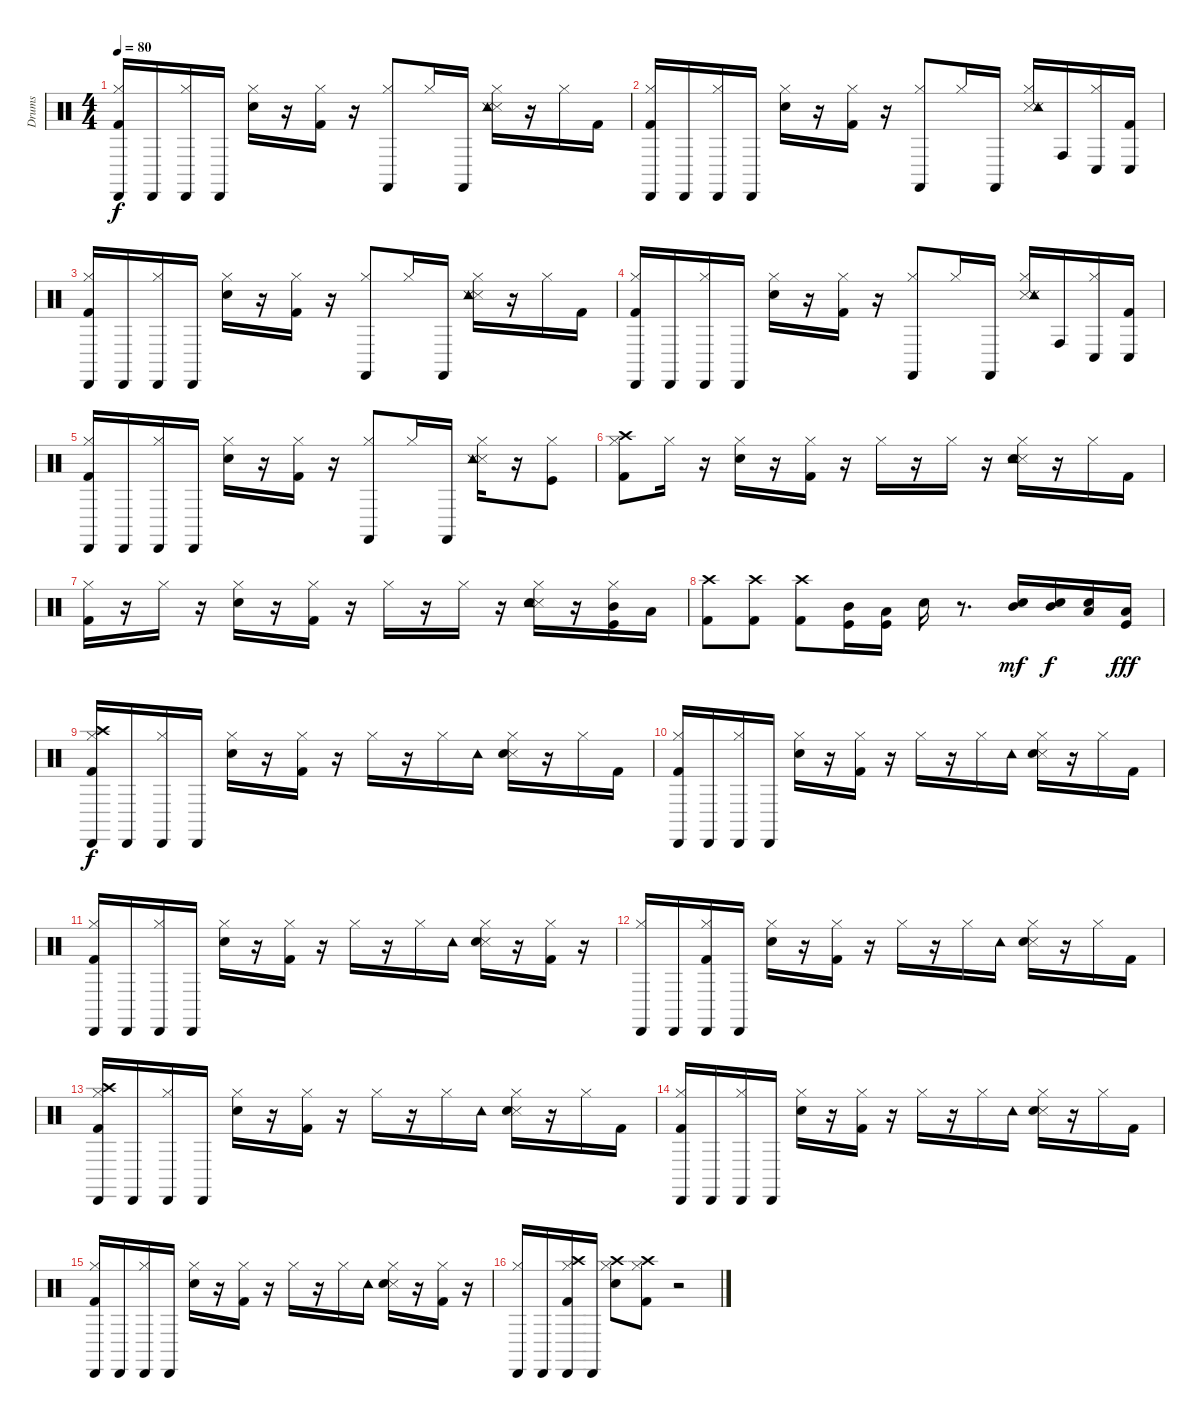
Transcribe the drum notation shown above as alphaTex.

\track ("Drums" "Drums") {instrument percussion}
\staff {score}
\articulation defaults
\ts (4 4)
\tempo 80
\clef neutral
\ks c
("Hi-Hat (closed)" "Kick (hit) 2" "Cabasa (hit)").16{dy f} "Cabasa (hit)".16 ("Cabasa (hit)" "Hi-Hat (closed)").16 "Cabasa (hit)".16 ("Electric Snare (hit)" "Hi-Hat (closed)").16 r.16 ("Hi-Hat (closed)" "Kick (hit) 2").16 r.16 ("Hi-Hat (closed)" "Castanets (hit)").8 "Hi-Hat (closed)".16 "Castanets (hit)".16 ("Metronome (hit)" "Snare (side stick) 3" "Tambourine (hit)" "Hi-Hat (closed)").16 r.16 "Hi-Hat (closed)".16 "Kick (hit) 2".16 |
("Hi-Hat (closed)" "Kick (hit) 2" "Cabasa (hit)").16 "Cabasa (hit)".16 ("Cabasa (hit)" "Hi-Hat (closed)").16 "Cabasa (hit)".16 ("Hi-Hat (closed)" "Electric Snare (hit)").16 r.16 ("Kick (hit) 2" "Hi-Hat (closed)").16 r.16 ("Castanets (hit)" "Hi-Hat (closed)").8 "Hi-Hat (closed)".16 "Castanets (hit)".16 ("Metronome (hit)" "Snare (side stick) 3" "Hi-Hat (closed)" "Tambourine (hit)").16 "Conga high (hit)".16 ("Hi-Hat (closed)" "Conga low (hit)").16 ("Kick (hit) 2" "Conga low (hit)").16 |
("Hi-Hat (closed)" "Kick (hit) 2" "Cabasa (hit)").16 "Cabasa (hit)".16 ("Cabasa (hit)" "Hi-Hat (closed)").16 "Cabasa (hit)".16 ("Electric Snare (hit)" "Hi-Hat (closed)").16 r.16 ("Hi-Hat (closed)" "Kick (hit) 2").16 r.16 ("Hi-Hat (closed)" "Castanets (hit)").8 "Hi-Hat (closed)".16 "Castanets (hit)".16 ("Metronome (hit)" "Snare (side stick) 3" "Tambourine (hit)" "Hi-Hat (closed)").16 r.16 "Hi-Hat (closed)".16 "Kick (hit) 2".16 |
("Hi-Hat (closed)" "Kick (hit) 2" "Cabasa (hit)").16 "Cabasa (hit)".16 ("Cabasa (hit)" "Hi-Hat (closed)").16 "Cabasa (hit)".16 ("Hi-Hat (closed)" "Electric Snare (hit)").16 r.16 ("Kick (hit) 2" "Hi-Hat (closed)").16 r.16 ("Castanets (hit)" "Hi-Hat (closed)").8 "Hi-Hat (closed)".16 "Castanets (hit)".16 ("Metronome (hit)" "Snare (side stick) 3" "Hi-Hat (closed)" "Tambourine (hit)").16 "Conga high (hit)".16 ("Hi-Hat (closed)" "Conga low (hit)").16 ("Kick (hit) 2" "Conga low (hit)").16 |
("Hi-Hat (closed)" "Kick (hit) 2" "Cabasa (hit)").16 "Cabasa (hit)".16 ("Cabasa (hit)" "Hi-Hat (closed)").16 "Cabasa (hit)".16 ("Electric Snare (hit)" "Hi-Hat (closed)").16 r.16 ("Hi-Hat (closed)" "Kick (hit) 2").16 r.16 ("Hi-Hat (closed)" "Castanets (hit)").8 "Hi-Hat (closed)".16 "Castanets (hit)".16 ("Metronome (hit)" "Snare (side stick) 3" "Tambourine (hit)" "Hi-Hat (closed)").16 r.16 ("Kick (hit)" "Hi-Hat (closed)").8 |
("Crash high (hit)" "Hi-Hat (closed)" "Kick (hit) 2").8 "Hi-Hat (closed)".16 r.16 ("Hi-Hat (closed)" "Electric Snare (hit)").16 r.16 ("Kick (hit) 2" "Hi-Hat (closed)").16 r.16 "Hi-Hat (closed)".16 r.16 "Hi-Hat (closed)".16 r.16 ("Metronome (hit)" "Snare (hit) 2" "Hi-Hat (closed)" "Tambourine (hit)").16 r.16 "Hi-Hat (closed)".16 "Kick (hit) 2".16 |
("Hi-Hat (closed)" "Kick (hit) 2").16 r.16 "Hi-Hat (closed)".16 r.16 ("Electric Snare (hit)" "Hi-Hat (closed)").16 r.16 ("Hi-Hat (closed)" "Kick (hit) 2").16 r.16 "Hi-Hat (closed)".16 r.16 "Hi-Hat (closed)".16 r.16 ("Metronome (hit)" "Snare (hit) 2" "Tambourine (hit)" "Hi-Hat (closed)").16 r.16 ("Mid Tom (hit)" "Kick (hit)" "Hi-Hat (closed)").16 "Low Tom (hit)".16 |
("Crash high (hit)" "Kick (hit) 2").8 ("Crash high (hit)" "Kick (hit) 2").8 ("Crash high (hit)" "Kick (hit) 2").8 ("Mid Tom (hit)" "Kick (hit)").16 ("Low Tom (hit)" "Kick (hit)").16 "Snare (hit) 2".16 r.8{d} ("Mid Tom (hit)" "Snare (hit) 2").16{dy mf} ("Mid Tom (hit)" "Snare (hit) 2").16{dy f} ("Low Tom (hit)" "Snare (hit) 2").16 ("Low Tom (hit)" "Kick (hit)").16{dy fff} |
("Crash high (hit)" "Hi-Hat (closed)" "Kick (hit) 2" "Cabasa (hit)").16{dy f} "Cabasa (hit)".16 ("Cabasa (hit)" "Hi-Hat (closed)").16 "Cabasa (hit)".16 ("Hi-Hat (closed)" "Electric Snare (hit)").16 r.16 ("Kick (hit) 2" "Hi-Hat (closed)").16 r.16 "Hi-Hat (closed)".16 r.16 "Hi-Hat (closed)".16 "Tambourine (hit)".16 ("Metronome (hit)" "Snare (hit) 2" "Hi-Hat (closed)").16 r.16 "Hi-Hat (closed)".16 "Kick (hit) 2".16 |
("Hi-Hat (closed)" "Kick (hit) 2" "Cabasa (hit)").16 "Cabasa (hit)".16 ("Cabasa (hit)" "Hi-Hat (closed)").16 "Cabasa (hit)".16 ("Hi-Hat (closed)" "Electric Snare (hit)").16 r.16 ("Kick (hit) 2" "Hi-Hat (closed)").16 r.16 "Hi-Hat (closed)".16 r.16 "Hi-Hat (closed)".16 "Tambourine (hit)".16 ("Metronome (hit)" "Snare (hit) 2" "Hi-Hat (closed)").16 r.16 "Hi-Hat (closed)".16 "Kick (hit) 2".16 |
("Hi-Hat (closed)" "Kick (hit) 2" "Cabasa (hit)").16 "Cabasa (hit)".16 ("Cabasa (hit)" "Hi-Hat (closed)").16 "Cabasa (hit)".16 ("Hi-Hat (closed)" "Electric Snare (hit)").16 r.16 ("Kick (hit) 2" "Hi-Hat (closed)").16 r.16 "Hi-Hat (closed)".16 r.16 "Hi-Hat (closed)".16 "Tambourine (hit)".16 ("Metronome (hit)" "Snare (hit) 2" "Hi-Hat (closed)").16 r.16 ("Kick (hit) 2" "Hi-Hat (closed)").16 r.16 |
("Hi-Hat (closed)" "Cabasa (hit)").16 "Cabasa (hit)".16 ("Kick (hit) 2" "Cabasa (hit)" "Hi-Hat (closed)").16 "Cabasa (hit)".16 ("Hi-Hat (closed)" "Electric Snare (hit)").16 r.16 ("Kick (hit) 2" "Hi-Hat (closed)").16 r.16 "Hi-Hat (closed)".16 r.16 "Hi-Hat (closed)".16 "Tambourine (hit)".16 ("Metronome (hit)" "Snare (hit) 2" "Hi-Hat (closed)").16 r.16 "Hi-Hat (closed)".16 "Kick (hit) 2".16 |
("Crash high (hit)" "Hi-Hat (closed)" "Kick (hit) 2" "Cabasa (hit)").16 "Cabasa (hit)".16 ("Cabasa (hit)" "Hi-Hat (closed)").16 "Cabasa (hit)".16 ("Hi-Hat (closed)" "Electric Snare (hit)").16 r.16 ("Kick (hit) 2" "Hi-Hat (closed)").16 r.16 "Hi-Hat (closed)".16 r.16 "Hi-Hat (closed)".16 "Tambourine (hit)".16 ("Metronome (hit)" "Snare (hit) 2" "Hi-Hat (closed)").16 r.16 "Hi-Hat (closed)".16 "Kick (hit) 2".16 |
("Hi-Hat (closed)" "Kick (hit) 2" "Cabasa (hit)").16 "Cabasa (hit)".16 ("Cabasa (hit)" "Hi-Hat (closed)").16 "Cabasa (hit)".16 ("Hi-Hat (closed)" "Electric Snare (hit)").16 r.16 ("Kick (hit) 2" "Hi-Hat (closed)").16 r.16 "Hi-Hat (closed)".16 r.16 "Hi-Hat (closed)".16 "Tambourine (hit)".16 ("Metronome (hit)" "Snare (hit) 2" "Hi-Hat (closed)").16 r.16 "Hi-Hat (closed)".16 "Kick (hit) 2".16 |
("Hi-Hat (closed)" "Kick (hit) 2" "Cabasa (hit)").16 "Cabasa (hit)".16 ("Cabasa (hit)" "Hi-Hat (closed)").16 "Cabasa (hit)".16 ("Hi-Hat (closed)" "Electric Snare (hit)").16 r.16 ("Kick (hit) 2" "Hi-Hat (closed)").16 r.16 "Hi-Hat (closed)".16 r.16 "Hi-Hat (closed)".16 "Tambourine (hit)".16 ("Metronome (hit)" "Snare (hit) 2" "Hi-Hat (closed)").16 r.16 ("Kick (hit) 2" "Hi-Hat (closed)").16 r.16 |
("Hi-Hat (closed)" "Cabasa (hit)").16 "Cabasa (hit)".16 ("Crash high (hit)" "Kick (hit) 2" "Cabasa (hit)" "Hi-Hat (closed)").16 "Cabasa (hit)".16 ("Crash high (hit)" "Hi-Hat (closed)" "Electric Snare (hit)").8 ("Crash high (hit)" "Kick (hit) 2" "Hi-Hat (closed)").8 r.2
